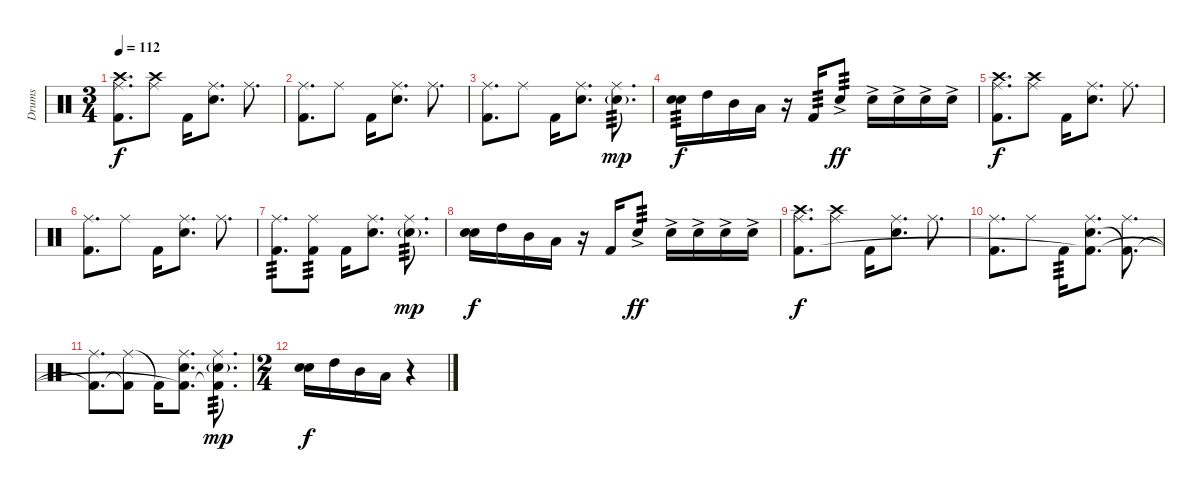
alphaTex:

\track ("Drums" "Drums") {instrument percussion}
\staff {score}
\articulation defaults
\ts (3 4)
\tempo 112
\clef neutral
\ks c
("Ride (middle)" "Crash high (hit)" "Kick (hit) 2").8{d dy f} ("Ride (middle)" "Crash high (hit)").8 "Kick (hit) 2".16 ("Ride (middle)" "Electric Snare (hit)").8{d} "Ride (middle)".8{d} |
("Ride (middle)" "Kick (hit) 2").8{d} "Ride (middle)".8 "Kick (hit) 2".16 ("Ride (middle)" "Electric Snare (hit)").8{d} "Ride (middle)".8{d} |
("Ride (middle)" "Kick (hit) 2").8{d} "Ride (middle)".8 "Kick (hit) 2".16 ("Ride (middle)" "Electric Snare (hit)").8{d} ("Ride (middle)" "Electric Snare (hit)"{g}).8{d tp 3 dy mp} |
("Electric Snare (hit)" "Electric Snare (hit)").16{tp 3 dy f} "High Tom (hit)".16 "Mid Tom (hit)".16 "Low Tom (hit)".16 r.16 "Kick (hit) 2".16{tp 3} "Electric Snare (hit)"{ac}.8{tp 3 dy ff} "Electric Snare (hit)"{ac}.16 "Electric Snare (hit)"{ac}.16 "Electric Snare (hit)"{ac}.16 "Electric Snare (hit)"{ac}.16 |
("Ride (middle)" "Crash high (hit)" "Kick (hit) 2").8{d dy f} ("Ride (middle)" "Crash high (hit)").8 "Kick (hit) 2".16 ("Ride (middle)" "Electric Snare (hit)").8{d} "Ride (middle)".8{d} |
("Ride (middle)" "Kick (hit) 2").8{d} "Ride (middle)".8 "Kick (hit) 2".16 ("Ride (middle)" "Electric Snare (hit)").8{d} "Ride (middle)".8{d} |
("Ride (middle)" "Kick (hit) 2").8{d tp 3} ("Ride (middle)" "Kick (hit) 2").8{tp 3} "Kick (hit) 2".16 ("Ride (middle)" "Electric Snare (hit)").8{d} ("Ride (middle)" "Electric Snare (hit)"{g}).8{d tp 3 dy mp} |
("Electric Snare (hit)" "Electric Snare (hit)").16{dy f} "High Tom (hit)".16 "Mid Tom (hit)".16 "Low Tom (hit)".16 r.16 "Kick (hit) 2".16 "Electric Snare (hit)"{ac}.8{tp 3 dy ff} "Electric Snare (hit)"{ac}.16 "Electric Snare (hit)"{ac}.16 "Electric Snare (hit)"{ac}.16 "Electric Snare (hit)"{ac}.16 |
("Ride (middle)" "Crash high (hit)" "Kick (hit) 2").8{d dy f} ("Ride (middle)" "Crash high (hit)").8 "Kick (hit) 2".16 ("Ride (middle)" "Electric Snare (hit)").8{d} "Ride (middle)".8{d} |
("Ride (middle)" "Kick (hit) 2").8{d} "Ride (middle)".8 "Kick (hit) 2".16{tp 3} ("Ride (middle)" "Electric Snare (hit)" "Kick (hit) 2"{t}).8{d} ("Ride (middle)" "Kick (hit) 2"{t}).8{d} |
("Ride (middle)" "Kick (hit) 2"{t}).8{d} ("Ride (middle)" "Kick (hit) 2"{t}).8 "Kick (hit) 2"{t}.16 ("Ride (middle)" "Electric Snare (hit)" "Kick (hit) 2"{t}).8{d} ("Ride (middle)" "Electric Snare (hit)"{g} "Kick (hit) 2"{t}).8{d tp 3 dy mp} |
\ts (2 4)
("Electric Snare (hit)" "Electric Snare (hit)").16{dy f} "High Tom (hit)".16 "Mid Tom (hit)".16 "Low Tom (hit)".16 r.4
